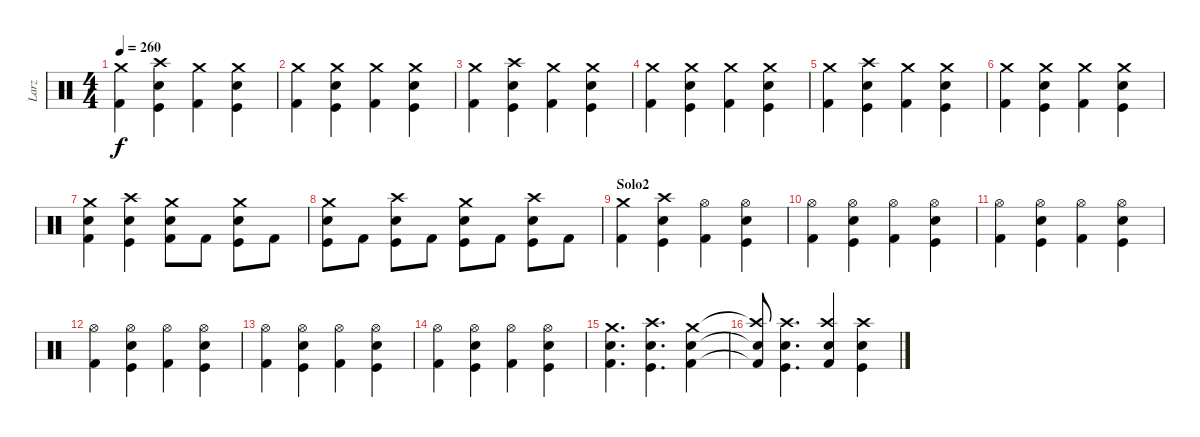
\track ("Larz" "Larz") {instrument percussion}
\staff {score}
\articulation defaults
\ts (4 4)
\tempo 260
\clef neutral
\ks c
("Crash medium (hit)" "Kick (hit) 2").4{dy f} ("Crash high (hit)" "Kick (hit)" "Electric Snare (hit)").4 ("Crash medium (hit)" "Kick (hit) 2").4 ("Crash medium (hit)" "Kick (hit)" "Electric Snare (hit)").4 |
("Crash medium (hit)" "Kick (hit) 2").4 ("Crash medium (hit)" "Kick (hit)" "Electric Snare (hit)").4 ("Crash medium (hit)" "Kick (hit) 2").4 ("Crash medium (hit)" "Kick (hit)" "Electric Snare (hit)").4 |
("Crash medium (hit)" "Kick (hit) 2").4 ("Crash high (hit)" "Kick (hit)" "Electric Snare (hit)").4 ("Crash medium (hit)" "Kick (hit) 2").4 ("Crash medium (hit)" "Kick (hit)" "Electric Snare (hit)").4 |
("Crash medium (hit)" "Kick (hit) 2").4 ("Crash medium (hit)" "Kick (hit)" "Electric Snare (hit)").4 ("Crash medium (hit)" "Kick (hit) 2").4 ("Crash medium (hit)" "Kick (hit)" "Electric Snare (hit)").4 |
("Crash medium (hit)" "Kick (hit) 2").4 ("Crash high (hit)" "Kick (hit)" "Electric Snare (hit)").4 ("Crash medium (hit)" "Kick (hit) 2").4 ("Crash medium (hit)" "Kick (hit)" "Electric Snare (hit)").4 |
("Crash medium (hit)" "Kick (hit) 2").4 ("Crash medium (hit)" "Kick (hit)" "Electric Snare (hit)").4 ("Crash medium (hit)" "Kick (hit) 2").4 ("Crash medium (hit)" "Kick (hit)" "Electric Snare (hit)").4 |
("Crash medium (hit)" "Kick (hit) 2" "Electric Snare (hit)").4 ("Crash high (hit)" "Kick (hit)" "Electric Snare (hit)").4 ("Crash medium (hit)" "Kick (hit) 2" "Electric Snare (hit)").8 "Kick (hit) 2".8 ("Crash medium (hit)" "Kick (hit)" "Electric Snare (hit)").8 "Kick (hit) 2".8 |
("Crash medium (hit)" "Kick (hit)" "Electric Snare (hit)").8 "Kick (hit) 2".8 ("Crash high (hit)" "Kick (hit)" "Electric Snare (hit)").8 "Kick (hit) 2".8 ("Crash medium (hit)" "Kick (hit)" "Electric Snare (hit)").8 "Kick (hit) 2".8 ("Crash high (hit)" "Kick (hit)" "Electric Snare (hit)").8 "Kick (hit) 2".8 |
\section ("" "Solo2")
("Crash medium (hit)" "Kick (hit) 2").4 ("Crash high (hit)" "Kick (hit)" "Electric Snare (hit)").4 ("Hi-Hat (open)" "Kick (hit) 2").4 ("Hi-Hat (open)" "Kick (hit)" "Electric Snare (hit)").4 |
("Hi-Hat (open)" "Kick (hit) 2").4 ("Hi-Hat (open)" "Kick (hit)" "Electric Snare (hit)").4 ("Hi-Hat (open)" "Kick (hit) 2").4 ("Hi-Hat (open)" "Kick (hit)" "Electric Snare (hit)").4 |
("Hi-Hat (open)" "Kick (hit) 2").4 ("Hi-Hat (open)" "Kick (hit)" "Electric Snare (hit)").4 ("Hi-Hat (open)" "Kick (hit) 2").4 ("Hi-Hat (open)" "Kick (hit)" "Electric Snare (hit)").4 |
("Hi-Hat (open)" "Kick (hit) 2").4 ("Hi-Hat (open)" "Kick (hit)" "Electric Snare (hit)").4 ("Hi-Hat (open)" "Kick (hit) 2").4 ("Hi-Hat (open)" "Kick (hit)" "Electric Snare (hit)").4 |
("Hi-Hat (open)" "Kick (hit) 2").4 ("Hi-Hat (open)" "Kick (hit)" "Electric Snare (hit)").4 ("Hi-Hat (open)" "Kick (hit) 2").4 ("Hi-Hat (open)" "Kick (hit)" "Electric Snare (hit)").4 |
("Hi-Hat (open)" "Kick (hit) 2").4 ("Hi-Hat (open)" "Kick (hit)" "Electric Snare (hit)").4 ("Hi-Hat (open)" "Kick (hit) 2").4 ("Hi-Hat (open)" "Kick (hit)" "Electric Snare (hit)").4 |
("Crash medium (hit)" "Kick (hit) 2" "Electric Snare (hit)").4{d} ("Crash high (hit)" "Kick (hit)" "Electric Snare (hit)").4{d} ("Crash medium (hit)" "Kick (hit) 2" "Electric Snare (hit)").4 |
("Crash high (hit)"{t} "Kick (hit) 2"{t} "Electric Snare (hit)"{t}).8 ("Crash high (hit)" "Kick (hit)" "Electric Snare (hit)").4{d} ("Crash high (hit)" "Kick (hit) 2" "Electric Snare (hit)").4 ("Crash high (hit)" "Kick (hit)" "Electric Snare (hit)").4
